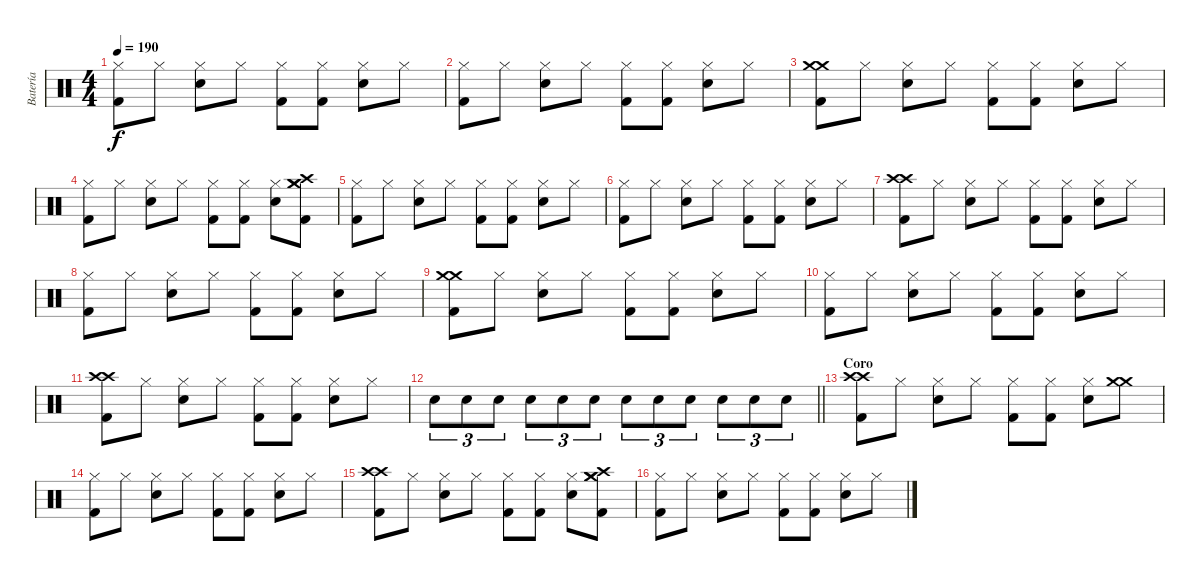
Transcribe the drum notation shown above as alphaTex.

\track ("Batería" "Batería") {instrument percussion}
\staff {score}
\articulation defaults
\ts (4 4)
\tempo 190
\clef neutral
\ks c
("Hi-Hat (closed)" "Kick (hit) 2").8{dy f} "Hi-Hat (closed)".8 ("Hi-Hat (closed)" "Snare (hit) 2").8 "Hi-Hat (closed)".8 ("Hi-Hat (closed)" "Kick (hit) 2").8 ("Hi-Hat (closed)" "Kick (hit) 2").8 ("Hi-Hat (closed)" "Snare (hit) 2").8 "Hi-Hat (closed)".8 |
("Hi-Hat (closed)" "Kick (hit) 2").8 "Hi-Hat (closed)".8 ("Hi-Hat (closed)" "Snare (hit) 2").8 "Hi-Hat (closed)".8 ("Hi-Hat (closed)" "Kick (hit) 2").8 ("Hi-Hat (closed)" "Kick (hit) 2").8 ("Hi-Hat (closed)" "Snare (hit) 2").8 "Hi-Hat (closed)".8 |
("Crash medium (hit)" "Crash medium (hit)" "Kick (hit) 2").8 "Hi-Hat (closed)".8 ("Hi-Hat (closed)" "Snare (hit) 2").8 "Hi-Hat (closed)".8 ("Hi-Hat (closed)" "Kick (hit) 2").8 ("Hi-Hat (closed)" "Kick (hit) 2").8 ("Hi-Hat (closed)" "Snare (hit) 2").8 "Hi-Hat (closed)".8 |
("Hi-Hat (closed)" "Kick (hit) 2").8 "Hi-Hat (closed)".8 ("Hi-Hat (closed)" "Snare (hit) 2").8 "Hi-Hat (closed)".8 ("Hi-Hat (closed)" "Kick (hit) 2").8 ("Hi-Hat (closed)" "Kick (hit) 2").8 ("Hi-Hat (closed)" "Snare (hit) 2").8 ("Crash medium (hit)" "Crash high (hit)" "Crash medium (hit)" "Kick (hit) 2").8 |
("Hi-Hat (closed)" "Kick (hit) 2").8 "Hi-Hat (closed)".8 ("Hi-Hat (closed)" "Snare (hit) 2").8 "Hi-Hat (closed)".8 ("Hi-Hat (closed)" "Kick (hit) 2").8 ("Hi-Hat (closed)" "Kick (hit) 2").8 ("Hi-Hat (closed)" "Snare (hit) 2").8 "Hi-Hat (closed)".8 |
("Hi-Hat (closed)" "Kick (hit) 2").8 "Hi-Hat (closed)".8 ("Hi-Hat (closed)" "Snare (hit) 2").8 "Hi-Hat (closed)".8 ("Hi-Hat (closed)" "Kick (hit) 2").8 ("Hi-Hat (closed)" "Kick (hit) 2").8 ("Hi-Hat (closed)" "Snare (hit) 2").8 "Hi-Hat (closed)".8 |
("Crash high (hit)" "Crash high (hit)" "Kick (hit) 2").8 "Hi-Hat (closed)".8 ("Hi-Hat (closed)" "Snare (hit) 2").8 "Hi-Hat (closed)".8 ("Hi-Hat (closed)" "Kick (hit) 2").8 ("Hi-Hat (closed)" "Kick (hit) 2").8 ("Hi-Hat (closed)" "Snare (hit) 2").8 "Hi-Hat (closed)".8 |
("Hi-Hat (closed)" "Kick (hit) 2").8 "Hi-Hat (closed)".8 ("Hi-Hat (closed)" "Snare (hit) 2").8 "Hi-Hat (closed)".8 ("Hi-Hat (closed)" "Kick (hit) 2").8 ("Hi-Hat (closed)" "Kick (hit) 2").8 ("Hi-Hat (closed)" "Snare (hit) 2").8 "Hi-Hat (closed)".8 |
("Crash medium (hit)" "Crash medium (hit)" "Kick (hit) 2").8 "Hi-Hat (closed)".8 ("Hi-Hat (closed)" "Snare (hit) 2").8 "Hi-Hat (closed)".8 ("Hi-Hat (closed)" "Kick (hit) 2").8 ("Hi-Hat (closed)" "Kick (hit) 2").8 ("Hi-Hat (closed)" "Snare (hit) 2").8 "Hi-Hat (closed)".8 |
("Hi-Hat (closed)" "Kick (hit) 2").8 "Hi-Hat (closed)".8 ("Hi-Hat (closed)" "Snare (hit) 2").8 "Hi-Hat (closed)".8 ("Hi-Hat (closed)" "Kick (hit) 2").8 ("Hi-Hat (closed)" "Kick (hit) 2").8 ("Hi-Hat (closed)" "Snare (hit) 2").8 "Hi-Hat (closed)".8 |
("Crash high (hit)" "Crash high (hit)" "Kick (hit) 2").8 "Hi-Hat (closed)".8 ("Hi-Hat (closed)" "Snare (hit) 2").8 "Hi-Hat (closed)".8 ("Hi-Hat (closed)" "Kick (hit) 2").8 ("Hi-Hat (closed)" "Kick (hit) 2").8 ("Hi-Hat (closed)" "Snare (hit) 2").8 "Hi-Hat (closed)".8 |
\barLineRight lightlight "Snare (hit) 2".8{tu (3 2)} "Snare (hit) 2".8{tu (3 2)} "Snare (hit) 2".8{tu (3 2)} "Snare (hit) 2".8{tu (3 2)} "Snare (hit) 2".8{tu (3 2)} "Snare (hit) 2".8{tu (3 2)} "Snare (hit) 2".8{tu (3 2)} "Snare (hit) 2".8{tu (3 2)} "Snare (hit) 2".8{tu (3 2)} "Snare (hit) 2".8{tu (3 2)} "Snare (hit) 2".8{tu (3 2)} "Snare (hit) 2".8{tu (3 2)}
|
\section ("" "Coro")
("Crash high (hit)" "Crash high (hit)" "Kick (hit) 2").8 "Hi-Hat (closed)".8 ("Hi-Hat (closed)" "Snare (hit) 2").8 "Hi-Hat (closed)".8 ("Hi-Hat (closed)" "Kick (hit) 2").8 ("Hi-Hat (closed)" "Kick (hit) 2").8 ("Hi-Hat (closed)" "Snare (hit) 2").8 ("Crash medium (hit)" "Crash medium (hit)").8 |
("Hi-Hat (closed)" "Kick (hit) 2").8 "Hi-Hat (closed)".8 ("Hi-Hat (closed)" "Snare (hit) 2").8 "Hi-Hat (closed)".8 ("Hi-Hat (closed)" "Kick (hit) 2").8 ("Hi-Hat (closed)" "Kick (hit) 2").8 ("Hi-Hat (closed)" "Snare (hit) 2").8 "Hi-Hat (closed)".8 |
("Crash high (hit)" "Crash high (hit)" "Kick (hit) 2").8 "Hi-Hat (closed)".8 ("Hi-Hat (closed)" "Snare (hit) 2").8 "Hi-Hat (closed)".8 ("Hi-Hat (closed)" "Kick (hit) 2").8 ("Hi-Hat (closed)" "Kick (hit) 2").8 ("Hi-Hat (closed)" "Snare (hit) 2").8 ("Crash medium (hit)" "Crash high (hit)" "Crash medium (hit)" "Kick (hit) 2").8 |
("Hi-Hat (closed)" "Kick (hit) 2").8 "Hi-Hat (closed)".8 ("Hi-Hat (closed)" "Snare (hit) 2").8 "Hi-Hat (closed)".8 ("Hi-Hat (closed)" "Kick (hit) 2").8 ("Hi-Hat (closed)" "Kick (hit) 2").8 ("Hi-Hat (closed)" "Snare (hit) 2").8 "Hi-Hat (closed)".8
